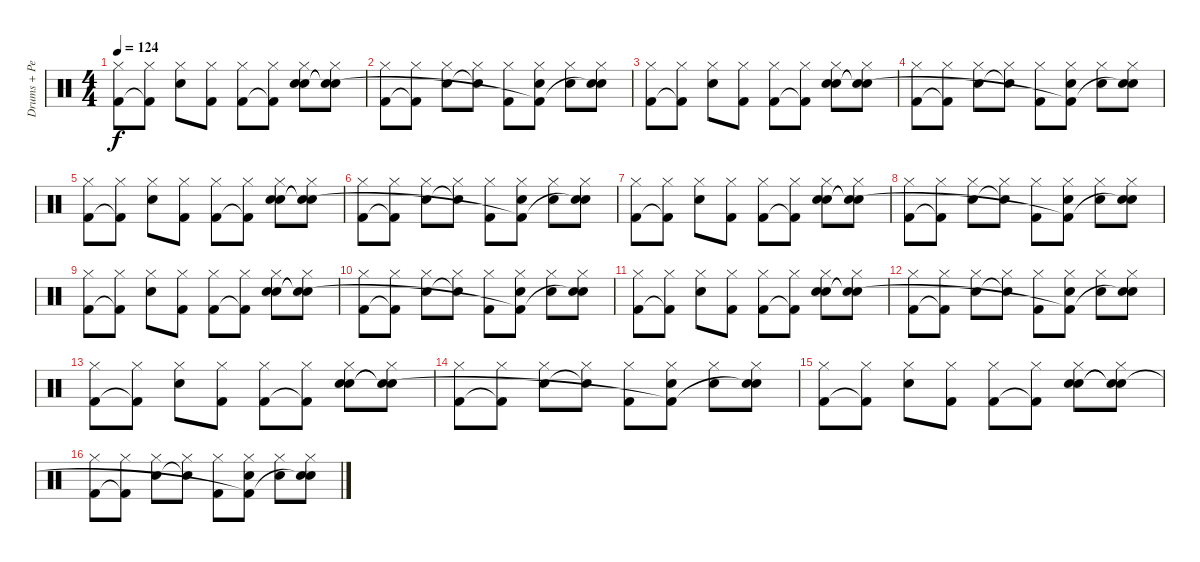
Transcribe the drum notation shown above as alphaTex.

\track ("Drums + Percussions (Bill Berry)" "Drums + Pe") {instrument percussion}
\staff {score}
\articulation defaults
\ts (4 4)
\tempo 124
\clef neutral
\ks c
("Hi-Hat (closed)" "Kick (hit) 2").8{dy f} ("Hi-Hat (closed)" "Kick (hit) 2"{t}).8 ("Hi-Hat (closed)" "Snare (hit) 2").8 ("Hi-Hat (closed)" "Kick (hit) 2").8 ("Hi-Hat (closed)" "Kick (hit) 2").8 ("Hi-Hat (closed)" "Kick (hit) 2"{t}).8 ("Hi-Hat (closed)" "Hand Clap (hit)" "Snare (hit) 2").8 ("Hi-Hat (closed)" "Hand Clap (hit)"{t} "Snare (hit) 2"{t}).8 |
("Hi-Hat (closed)" "Kick (hit) 2").8 ("Hi-Hat (closed)" "Kick (hit) 2"{t}).8 ("Hi-Hat (closed)" "Snare (hit) 2").8 ("Hi-Hat (closed)" "Snare (hit) 2"{t}).8 ("Hi-Hat (closed)" "Kick (hit) 2").8 ("Hi-Hat (closed)" "Hand Clap (hit)" "Kick (hit) 2"{t}).8 ("Hi-Hat (closed)" "Snare (hit) 2").8 ("Hi-Hat (closed)" "Hand Clap (hit)" "Snare (hit) 2"{t}).8 |
("Hi-Hat (closed)" "Kick (hit) 2").8 ("Hi-Hat (closed)" "Kick (hit) 2"{t}).8 ("Hi-Hat (closed)" "Snare (hit) 2").8 ("Hi-Hat (closed)" "Kick (hit) 2").8 ("Hi-Hat (closed)" "Kick (hit) 2").8 ("Hi-Hat (closed)" "Kick (hit) 2"{t}).8 ("Hi-Hat (closed)" "Hand Clap (hit)" "Snare (hit) 2").8 ("Hi-Hat (closed)" "Hand Clap (hit)"{t} "Snare (hit) 2"{t}).8 |
("Hi-Hat (closed)" "Kick (hit) 2").8 ("Hi-Hat (closed)" "Kick (hit) 2"{t}).8 ("Hi-Hat (closed)" "Snare (hit) 2").8 ("Hi-Hat (closed)" "Snare (hit) 2"{t}).8 ("Hi-Hat (closed)" "Kick (hit) 2").8 ("Hi-Hat (closed)" "Hand Clap (hit)" "Kick (hit) 2"{t}).8 ("Hi-Hat (closed)" "Snare (hit) 2").8 ("Hi-Hat (closed)" "Hand Clap (hit)" "Snare (hit)"{t}).8 |
("Hi-Hat (closed)" "Kick (hit) 2").8 ("Hi-Hat (closed)" "Kick (hit) 2"{t}).8 ("Hi-Hat (closed)" "Snare (hit) 2").8 ("Hi-Hat (closed)" "Kick (hit) 2").8 ("Hi-Hat (closed)" "Kick (hit) 2").8 ("Hi-Hat (closed)" "Kick (hit) 2"{t}).8 ("Hi-Hat (closed)" "Hand Clap (hit)" "Snare (hit) 2").8 ("Hi-Hat (closed)" "Hand Clap (hit)"{t} "Snare (hit) 2"{t}).8 |
("Hi-Hat (closed)" "Kick (hit) 2").8 ("Hi-Hat (closed)" "Kick (hit) 2"{t}).8 ("Hi-Hat (closed)" "Snare (hit) 2").8 ("Hi-Hat (closed)" "Snare (hit) 2"{t}).8 ("Hi-Hat (closed)" "Kick (hit) 2").8 ("Hi-Hat (closed)" "Hand Clap (hit)" "Kick (hit) 2"{t}).8 ("Hi-Hat (closed)" "Snare (hit) 2").8 ("Hi-Hat (closed)" "Hand Clap (hit)" "Snare (hit) 2"{t}).8 |
("Hi-Hat (closed)" "Kick (hit) 2").8 ("Hi-Hat (closed)" "Kick (hit) 2"{t}).8 ("Hi-Hat (closed)" "Snare (hit) 2").8 ("Hi-Hat (closed)" "Kick (hit) 2").8 ("Hi-Hat (closed)" "Kick (hit) 2").8 ("Hi-Hat (closed)" "Kick (hit) 2"{t}).8 ("Hi-Hat (closed)" "Hand Clap (hit)" "Snare (hit) 2").8 ("Hi-Hat (closed)" "Hand Clap (hit)"{t} "Snare (hit) 2"{t}).8 |
("Hi-Hat (closed)" "Kick (hit) 2").8 ("Hi-Hat (closed)" "Kick (hit) 2"{t}).8 ("Hi-Hat (closed)" "Snare (hit) 2").8 ("Hi-Hat (closed)" "Snare (hit) 2"{t}).8 ("Hi-Hat (closed)" "Kick (hit) 2").8 ("Hi-Hat (closed)" "Hand Clap (hit)" "Kick (hit) 2"{t}).8 ("Hi-Hat (closed)" "Snare (hit) 2").8 ("Hi-Hat (closed)" "Hand Clap (hit)" "Snare (hit)"{t}).8 |
("Hi-Hat (closed)" "Kick (hit) 2").8 ("Hi-Hat (closed)" "Kick (hit) 2"{t}).8 ("Hi-Hat (closed)" "Snare (hit) 2").8 ("Hi-Hat (closed)" "Kick (hit) 2").8 ("Hi-Hat (closed)" "Kick (hit) 2").8 ("Hi-Hat (closed)" "Kick (hit) 2"{t}).8 ("Hi-Hat (closed)" "Hand Clap (hit)" "Snare (hit) 2").8 ("Hi-Hat (closed)" "Hand Clap (hit)"{t} "Snare (hit) 2"{t}).8 |
("Hi-Hat (closed)" "Kick (hit) 2").8 ("Hi-Hat (closed)" "Kick (hit) 2"{t}).8 ("Hi-Hat (closed)" "Snare (hit) 2").8 ("Hi-Hat (closed)" "Snare (hit) 2"{t}).8 ("Hi-Hat (closed)" "Kick (hit) 2").8 ("Hi-Hat (closed)" "Hand Clap (hit)" "Kick (hit) 2"{t}).8 ("Hi-Hat (closed)" "Snare (hit) 2").8 ("Hi-Hat (closed)" "Hand Clap (hit)" "Snare (hit) 2"{t}).8 |
("Hi-Hat (closed)" "Kick (hit) 2").8 ("Hi-Hat (closed)" "Kick (hit) 2"{t}).8 ("Hi-Hat (closed)" "Snare (hit) 2").8 ("Hi-Hat (closed)" "Kick (hit) 2").8 ("Hi-Hat (closed)" "Kick (hit) 2").8 ("Hi-Hat (closed)" "Kick (hit) 2"{t}).8 ("Hi-Hat (closed)" "Hand Clap (hit)" "Snare (hit) 2").8 ("Hi-Hat (closed)" "Hand Clap (hit)"{t} "Snare (hit) 2"{t}).8 |
("Hi-Hat (closed)" "Kick (hit) 2").8{volume 14} ("Hi-Hat (closed)" "Kick (hit) 2"{t}).8 ("Hi-Hat (closed)" "Snare (hit) 2").8 ("Hi-Hat (closed)" "Snare (hit) 2"{t}).8 ("Hi-Hat (closed)" "Kick (hit) 2").8{volume 13} ("Hi-Hat (closed)" "Hand Clap (hit)" "Kick (hit) 2"{t}).8 ("Hi-Hat (closed)" "Snare (hit) 2").8 ("Hi-Hat (closed)" "Hand Clap (hit)" "Snare (hit)"{t}).8 |
("Hi-Hat (closed)" "Kick (hit) 2").8{volume 12} ("Hi-Hat (closed)" "Kick (hit) 2"{t}).8 ("Hi-Hat (closed)" "Snare (hit) 2").8 ("Hi-Hat (closed)" "Kick (hit) 2").8 ("Hi-Hat (closed)" "Kick (hit) 2").8{volume 11} ("Hi-Hat (closed)" "Kick (hit) 2"{t}).8 ("Hi-Hat (closed)" "Hand Clap (hit)" "Snare (hit) 2").8 ("Hi-Hat (closed)" "Hand Clap (hit)"{t} "Snare (hit) 2"{t}).8 |
("Hi-Hat (closed)" "Kick (hit) 2").8{volume 10} ("Hi-Hat (closed)" "Kick (hit) 2"{t}).8 ("Hi-Hat (closed)" "Snare (hit) 2").8 ("Hi-Hat (closed)" "Snare (hit) 2"{t}).8 ("Hi-Hat (closed)" "Kick (hit) 2").8{volume 9} ("Hi-Hat (closed)" "Hand Clap (hit)" "Kick (hit) 2"{t}).8 ("Hi-Hat (closed)" "Snare (hit) 2").8 ("Hi-Hat (closed)" "Hand Clap (hit)" "Snare (hit) 2"{t}).8 |
("Hi-Hat (closed)" "Kick (hit) 2").8{volume 8} ("Hi-Hat (closed)" "Kick (hit) 2"{t}).8 ("Hi-Hat (closed)" "Snare (hit) 2").8 ("Hi-Hat (closed)" "Kick (hit) 2").8 ("Hi-Hat (closed)" "Kick (hit) 2").8{volume 7} ("Hi-Hat (closed)" "Kick (hit) 2"{t}).8 ("Hi-Hat (closed)" "Hand Clap (hit)" "Snare (hit) 2").8 ("Hi-Hat (closed)" "Hand Clap (hit)"{t} "Snare (hit) 2"{t}).8 |
("Hi-Hat (closed)" "Kick (hit) 2").8{volume 6} ("Hi-Hat (closed)" "Kick (hit) 2"{t}).8 ("Hi-Hat (closed)" "Snare (hit) 2").8 ("Hi-Hat (closed)" "Snare (hit) 2"{t}).8 ("Hi-Hat (closed)" "Kick (hit) 2").8{volume 5} ("Hi-Hat (closed)" "Hand Clap (hit)" "Kick (hit) 2"{t}).8 ("Hi-Hat (closed)" "Snare (hit) 2").8 ("Hi-Hat (closed)" "Hand Clap (hit)" "Snare (hit)"{t}).8
